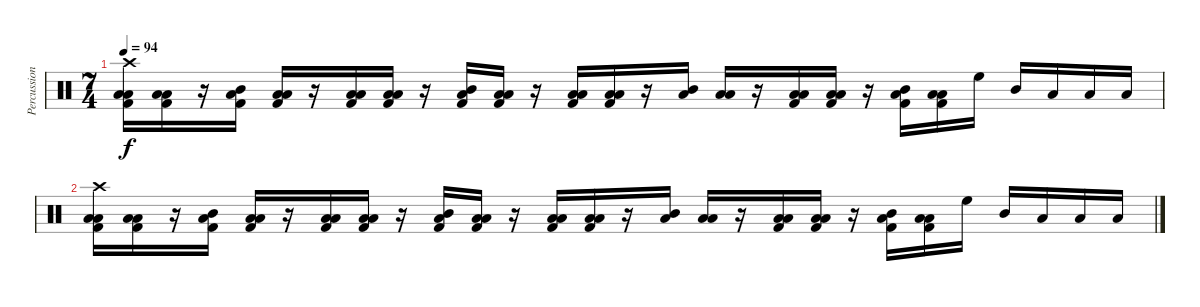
\track ("Percussion" "Percussion") {instrument percussion}
\staff {score}
\articulation defaults
\ts (7 4)
\tempo 94
\clef neutral
\ks c
("Crash high (hit)" "Low Tom (hit)" "Low Floor Tom (hit)" "Kick (hit) 2").16{dy f volume 0} ("Low Tom (hit)" "Low Floor Tom (hit)" "Kick (hit) 2").16 r.16 ("Mid Tom (hit)" "Low Floor Tom (hit)" "Kick (hit) 2").16 ("Low Tom (hit)" "Low Floor Tom (hit)" "Kick (hit) 2").16 r.16 ("Low Tom (hit)" "Low Floor Tom (hit)" "Kick (hit) 2").16 ("Low Tom (hit)" "Low Floor Tom (hit)" "Kick (hit) 2").16 r.16 ("Mid Tom (hit)" "Low Floor Tom (hit)" "Kick (hit) 2").16 ("Low Tom (hit)" "Low Floor Tom (hit)" "Kick (hit) 2").16 r.16 ("Low Tom (hit)" "Low Floor Tom (hit)" "Kick (hit) 2").16 ("Low Tom (hit)" "Low Floor Tom (hit)" "Kick (hit) 2").16 r.16 ("Mid Tom (hit)" "Low Floor Tom (hit)").16 ("Low Tom (hit)" "Low Floor Tom (hit)").16 r.16 ("Low Tom (hit)" "Low Floor Tom (hit)" "Kick (hit) 2").16 ("Low Tom (hit)" "Low Floor Tom (hit)" "Kick (hit) 2").16 r.16 ("Mid Tom (hit)" "Low Floor Tom (hit)" "Kick (hit) 2").16 ("Low Tom (hit)" "Low Floor Tom (hit)" "Kick (hit) 2").16 "High Floor Tom (hit)".16 "Mid Tom (hit)".16 "Low Tom (hit)".16 "Low Floor Tom (hit)".16 "Low Tom (hit)".16 |
("Crash high (hit)" "Low Tom (hit)" "Low Floor Tom (hit)" "Kick (hit) 2").16 ("Low Tom (hit)" "Low Floor Tom (hit)" "Kick (hit) 2").16 r.16 ("Mid Tom (hit)" "Low Floor Tom (hit)" "Kick (hit) 2").16 ("Low Tom (hit)" "Low Floor Tom (hit)" "Kick (hit) 2").16 r.16 ("Low Tom (hit)" "Low Floor Tom (hit)" "Kick (hit) 2").16 ("Low Tom (hit)" "Low Floor Tom (hit)" "Kick (hit) 2").16 r.16 ("Mid Tom (hit)" "Low Floor Tom (hit)" "Kick (hit) 2").16 ("Low Tom (hit)" "Low Floor Tom (hit)" "Kick (hit) 2").16 r.16 ("Low Tom (hit)" "Low Floor Tom (hit)" "Kick (hit) 2").16 ("Low Tom (hit)" "Low Floor Tom (hit)" "Kick (hit) 2").16 r.16 ("Mid Tom (hit)" "Low Floor Tom (hit)").16 ("Low Tom (hit)" "Low Floor Tom (hit)").16 r.16 ("Low Tom (hit)" "Low Floor Tom (hit)" "Kick (hit) 2").16 ("Low Tom (hit)" "Low Floor Tom (hit)" "Kick (hit) 2").16 r.16 ("Mid Tom (hit)" "Low Floor Tom (hit)" "Kick (hit) 2").16 ("Low Tom (hit)" "Low Floor Tom (hit)" "Kick (hit) 2").16 "High Floor Tom (hit)".16 "Mid Tom (hit)".16 "Low Tom (hit)".16 "Low Floor Tom (hit)".16 "Low Tom (hit)".16
